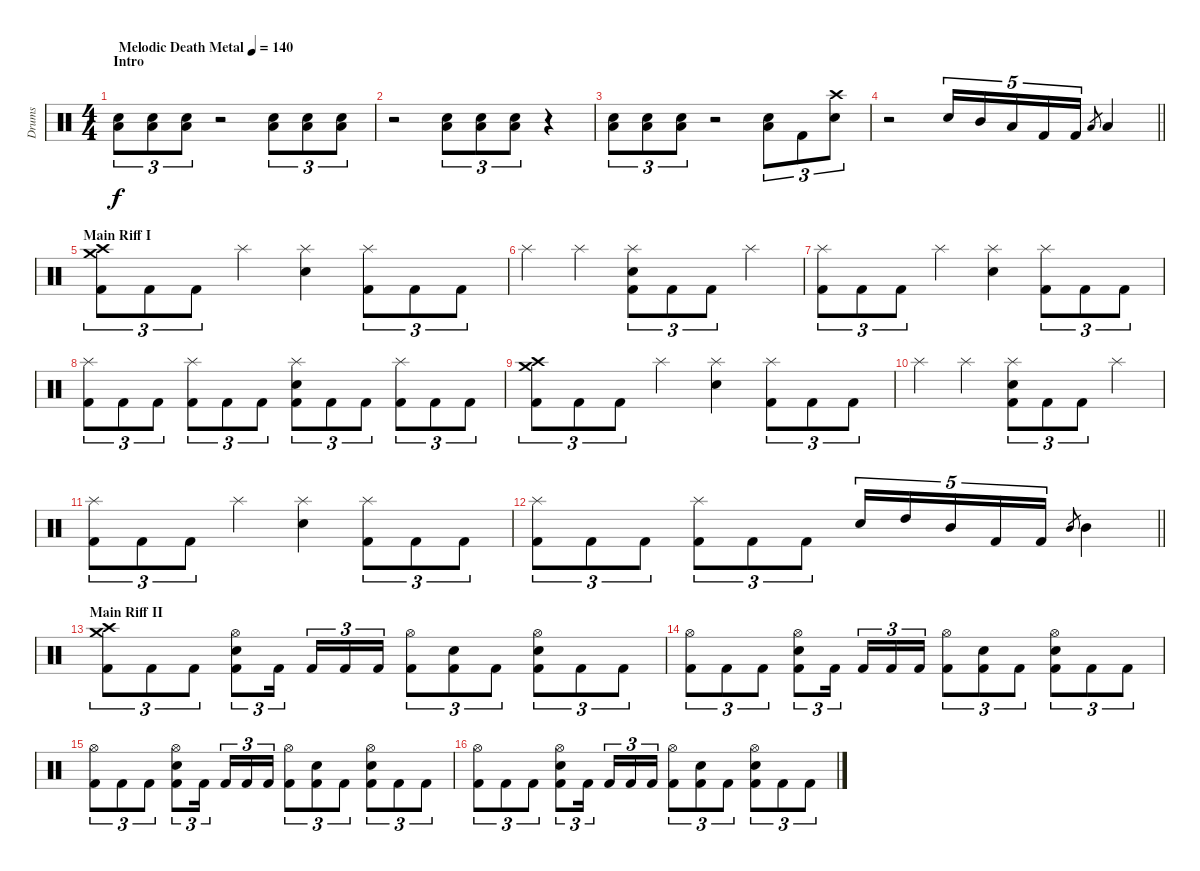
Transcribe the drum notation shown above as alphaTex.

\track ("Drums" "Drums") {instrument percussion}
\staff {score}
\articulation defaults
\ts (4 4)
\section ("" "Intro")
\tempo (140 "Melodic Death Metal")
\clef neutral
\ks c
("Electric Snare (hit)" "Low Floor Tom (hit)").8{tu (3 2) dy f volume 14 balance 8} ("Electric Snare (hit)" "Low Floor Tom (hit)").8{tu (3 2)} ("Electric Snare (hit)" "Low Floor Tom (hit)").8{tu (3 2)} r.2 ("Electric Snare (hit)" "Low Floor Tom (hit)").8{tu (3 2)} ("Electric Snare (hit)" "Low Floor Tom (hit)").8{tu (3 2)} ("Electric Snare (hit)" "Low Floor Tom (hit)").8{tu (3 2)} |
r.2 ("Electric Snare (hit)" "Low Floor Tom (hit)").8{tu (3 2)} ("Electric Snare (hit)" "Low Floor Tom (hit)").8{tu (3 2)} ("Electric Snare (hit)" "Low Floor Tom (hit)").8{tu (3 2)} r.4 |
("Electric Snare (hit)" "Low Floor Tom (hit)").8{tu (3 2)} ("Electric Snare (hit)" "Low Floor Tom (hit)").8{tu (3 2)} ("Electric Snare (hit)" "Low Floor Tom (hit)").8{tu (3 2)} r.2 ("Electric Snare (hit)" "Low Floor Tom (hit)").8{tu (3 2)} "Kick (hit) 2".8{tu (3 2)} ("Crash high (hit)" "Electric Snare (hit)").8{tu (3 2)} |
\barLineRight lightlight
r.2 "Electric Snare (hit)".16{tu (5 4)} "Mid Tom (hit)".16{tu (5 4)} "Low Tom (hit)".16{tu (5 4)} "Kick (hit) 2".16{tu (5 4)} "Kick (hit) 2".16{tu (5 4)} "Low Tom (hit)".8{gr} "Low Tom (hit)".4 |
\section ("" "Main Riff I")
("Crash medium (hit)" "Crash high (hit)" "Kick (hit) 2").8{tu (3 2)} "Kick (hit) 2".8{tu (3 2)} "Kick (hit) 2".8{tu (3 2)} "Splash (hit)".4 ("Splash (hit)" "Electric Snare (hit)").4 ("Splash (hit)" "Kick (hit) 2").8{tu (3 2)} "Kick (hit) 2".8{tu (3 2)} "Kick (hit) 2".8{tu (3 2)} |
"Splash (hit)".4 "Splash (hit)".4 ("Splash (hit)" "Electric Snare (hit)" "Kick (hit) 2").8{tu (3 2)} "Kick (hit) 2".8{tu (3 2)} "Kick (hit) 2".8{tu (3 2)} "Splash (hit)".4 |
("Splash (hit)" "Kick (hit) 2").8{tu (3 2)} "Kick (hit) 2".8{tu (3 2)} "Kick (hit) 2".8{tu (3 2)} "Splash (hit)".4 ("Splash (hit)" "Electric Snare (hit)").4 ("Splash (hit)" "Kick (hit) 2").8{tu (3 2)} "Kick (hit) 2".8{tu (3 2)} "Kick (hit) 2".8{tu (3 2)} |
("Splash (hit)" "Kick (hit) 2").8{tu (3 2)} "Kick (hit) 2".8{tu (3 2)} "Kick (hit) 2".8{tu (3 2)} ("Splash (hit)" "Kick (hit) 2").8{tu (3 2)} "Kick (hit) 2".8{tu (3 2)} "Kick (hit) 2".8{tu (3 2)} ("Splash (hit)" "Electric Snare (hit)" "Kick (hit) 2").8{tu (3 2)} "Kick (hit) 2".8{tu (3 2)} "Kick (hit) 2".8{tu (3 2)} ("Splash (hit)" "Kick (hit) 2").8{tu (3 2)} "Kick (hit) 2".8{tu (3 2)} "Kick (hit) 2".8{tu (3 2)} |
("Crash medium (hit)" "Crash high (hit)" "Kick (hit) 2").8{tu (3 2)} "Kick (hit) 2".8{tu (3 2)} "Kick (hit) 2".8{tu (3 2)} "Splash (hit)".4 ("Splash (hit)" "Electric Snare (hit)").4 ("Splash (hit)" "Kick (hit) 2").8{tu (3 2)} "Kick (hit) 2".8{tu (3 2)} "Kick (hit) 2".8{tu (3 2)} |
"Splash (hit)".4 "Splash (hit)".4 ("Splash (hit)" "Electric Snare (hit)" "Kick (hit) 2").8{tu (3 2)} "Kick (hit) 2".8{tu (3 2)} "Kick (hit) 2".8{tu (3 2)} "Splash (hit)".4 |
("Splash (hit)" "Kick (hit) 2").8{tu (3 2)} "Kick (hit) 2".8{tu (3 2)} "Kick (hit) 2".8{tu (3 2)} "Splash (hit)".4 ("Splash (hit)" "Electric Snare (hit)").4 ("Splash (hit)" "Kick (hit) 2").8{tu (3 2)} "Kick (hit) 2".8{tu (3 2)} "Kick (hit) 2".8{tu (3 2)} |
\barLineRight lightlight
("Splash (hit)" "Kick (hit) 2").8{tu (3 2)} "Kick (hit) 2".8{tu (3 2)} "Kick (hit) 2".8{tu (3 2)} ("Splash (hit)" "Kick (hit) 2").8{tu (3 2)} "Kick (hit) 2".8{tu (3 2)} "Kick (hit) 2".8{tu (3 2)} "Electric Snare (hit)".16{tu (5 4)} "High Tom (hit)".16{tu (5 4)} "Mid Tom (hit)".16{tu (5 4)} "Kick (hit) 2".16{tu (5 4)} "Kick (hit) 2".16{tu (5 4)} "Mid Tom (hit)".8{gr} "Mid Tom (hit)".4 |
\section ("" "Main Riff II")
("Crash medium (hit)" "Crash high (hit)" "Kick (hit) 2").8{tu (3 2)} "Kick (hit) 2".8{tu (3 2)} "Kick (hit) 2".8{tu (3 2)} ("Hi-Hat (open)" "Electric Snare (hit)" "Kick (hit) 2").8{tu (3 2)} "Kick (hit) 2".16{tu (3 2) beam splitsecondary} "Kick (hit) 2".16{tu (3 2)} "Kick (hit) 2".16{tu (3 2)} "Kick (hit) 2".16{tu (3 2)} ("Hi-Hat (open)" "Kick (hit) 2").8{tu (3 2)} ("Electric Snare (hit)" "Kick (hit) 2").8{tu (3 2)} "Kick (hit) 2".8{tu (3 2)} ("Hi-Hat (open)" "Electric Snare (hit)" "Kick (hit) 2").8{tu (3 2)} "Kick (hit) 2".8{tu (3 2)} "Kick (hit) 2".8{tu (3 2)} |
("Hi-Hat (open)" "Kick (hit) 2").8{tu (3 2)} "Kick (hit) 2".8{tu (3 2)} "Kick (hit) 2".8{tu (3 2)} ("Hi-Hat (open)" "Electric Snare (hit)" "Kick (hit) 2").8{tu (3 2)} "Kick (hit) 2".16{tu (3 2) beam splitsecondary} "Kick (hit) 2".16{tu (3 2)} "Kick (hit) 2".16{tu (3 2)} "Kick (hit) 2".16{tu (3 2)} ("Hi-Hat (open)" "Kick (hit) 2").8{tu (3 2)} ("Electric Snare (hit)" "Kick (hit) 2").8{tu (3 2)} "Kick (hit) 2".8{tu (3 2)} ("Hi-Hat (open)" "Electric Snare (hit)" "Kick (hit) 2").8{tu (3 2)} "Kick (hit) 2".8{tu (3 2)} "Kick (hit) 2".8{tu (3 2)} |
("Hi-Hat (open)" "Kick (hit) 2").8{tu (3 2)} "Kick (hit) 2".8{tu (3 2)} "Kick (hit) 2".8{tu (3 2)} ("Hi-Hat (open)" "Electric Snare (hit)" "Kick (hit) 2").8{tu (3 2)} "Kick (hit) 2".16{tu (3 2) beam splitsecondary} "Kick (hit) 2".16{tu (3 2)} "Kick (hit) 2".16{tu (3 2)} "Kick (hit) 2".16{tu (3 2)} ("Hi-Hat (open)" "Kick (hit) 2").8{tu (3 2)} ("Electric Snare (hit)" "Kick (hit) 2").8{tu (3 2)} "Kick (hit) 2".8{tu (3 2)} ("Hi-Hat (open)" "Electric Snare (hit)" "Kick (hit) 2").8{tu (3 2)} "Kick (hit) 2".8{tu (3 2)} "Kick (hit) 2".8{tu (3 2)} |
("Hi-Hat (open)" "Kick (hit) 2").8{tu (3 2)} "Kick (hit) 2".8{tu (3 2)} "Kick (hit) 2".8{tu (3 2)} ("Hi-Hat (open)" "Electric Snare (hit)" "Kick (hit) 2").8{tu (3 2)} "Kick (hit) 2".16{tu (3 2) beam splitsecondary} "Kick (hit) 2".16{tu (3 2)} "Kick (hit) 2".16{tu (3 2)} "Kick (hit) 2".16{tu (3 2)} ("Hi-Hat (open)" "Kick (hit) 2").8{tu (3 2)} ("Electric Snare (hit)" "Kick (hit) 2").8{tu (3 2)} "Kick (hit) 2".8{tu (3 2)} ("Hi-Hat (open)" "Electric Snare (hit)" "Kick (hit) 2").8{tu (3 2)} "Kick (hit) 2".8{tu (3 2)} "Kick (hit) 2".8{tu (3 2)}
